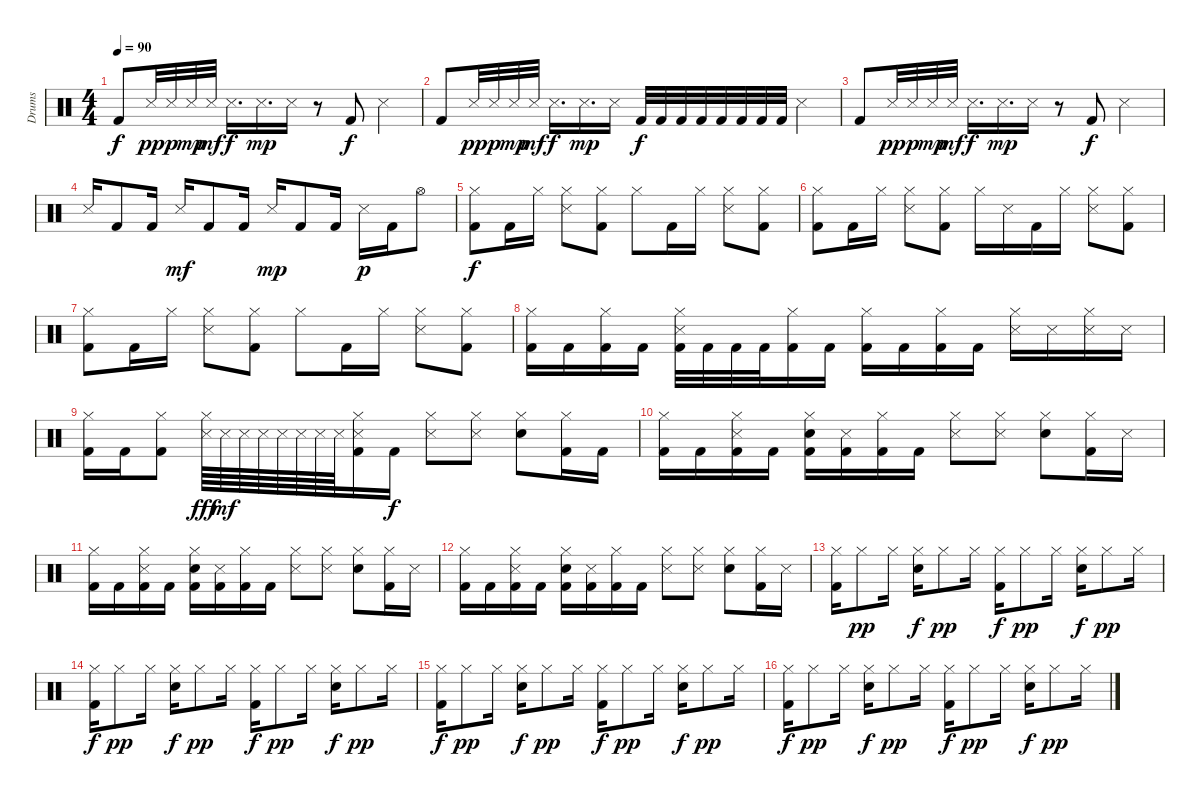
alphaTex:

\track ("Drums" "Drums") {instrument percussion}
\staff {score}
\articulation defaults
\ts (4 4)
\tempo 90
\clef neutral
\ks c "Kick (hit) 2".8{dy f} "Snare (side stick) 3".32{dy pp} "Snare (side stick) 3".32{dy p} "Snare (side stick) 3".32{dy mp} "Snare (side stick) 3".32{dy mf} "Snare (side stick) 3".16{d dy f} "Snare (side stick) 3".16{d dy mp} "Snare (side stick) 3".16
r.8 "Kick (hit) 2".8{dy f} "Snare (side stick) 3".4 |
"Kick (hit) 2".8 "Snare (side stick) 3".32{dy pp} "Snare (side stick) 3".32{dy p} "Snare (side stick) 3".32{dy mp} "Snare (side stick) 3".32{dy mf} "Snare (side stick) 3".16{d dy f} "Snare (side stick) 3".16{d dy mp} "Snare (side stick) 3".16 "Kick (hit) 2".32{dy f} "Kick (hit) 2".32 "Kick (hit) 2".32 "Kick (hit) 2".32 "Kick (hit) 2".32 "Kick (hit) 2".32 "Kick (hit) 2".32 "Kick (hit) 2".32 "Snare (side stick) 3".4 |
"Kick (hit) 2".8 "Snare (side stick) 3".32{dy pp} "Snare (side stick) 3".32{dy p} "Snare (side stick) 3".32{dy mp} "Snare (side stick) 3".32{dy mf} "Snare (side stick) 3".16{d dy f} "Snare (side stick) 3".16{d dy mp} "Snare (side stick) 3".16 r.8 "Kick (hit) 2".8{dy f} "Snare (side stick) 3".4 |
"Snare (side stick) 3".16 "Kick (hit) 2".8 "Kick (hit) 2".16 "Snare (side stick) 3".16{dy mf} "Kick (hit) 2".8 "Kick (hit) 2".16 "Snare (side stick) 3".16{dy mp} "Kick (hit) 2".8 "Kick (hit) 2".16 "Snare (side stick) 3".16{dy p} "Kick (hit) 2".16 "Hi-Hat (open)".8 |
("Hi-Hat (closed)" "Kick (hit) 2").8{dy f} "Kick (hit) 2".16 "Hi-Hat (closed)".16 ("Snare (side stick) 3" "Hi-Hat (closed)").8 ("Hi-Hat (closed)" "Kick (hit) 2").8 "Hi-Hat (closed)".8 "Kick (hit) 2".16 "Hi-Hat (closed)".16 ("Snare (side stick) 3" "Hi-Hat (closed)").8 ("Hi-Hat (closed)" "Kick (hit) 2").8 |
("Hi-Hat (closed)" "Kick (hit) 2").8 "Kick (hit) 2".16 "Hi-Hat (closed)".16 ("Snare (side stick) 3" "Hi-Hat (closed)").8 ("Hi-Hat (closed)" "Kick (hit) 2").8 "Hi-Hat (closed)".16 "Snare (side stick) 3".16 "Kick (hit) 2".16 "Hi-Hat (closed)".16 ("Snare (side stick) 3" "Hi-Hat (closed)").8 ("Hi-Hat (closed)" "Kick (hit) 2").8 |
("Hi-Hat (closed)" "Kick (hit) 2").8 "Kick (hit) 2".16 "Hi-Hat (closed)".16 ("Snare (side stick) 3" "Hi-Hat (closed)").8 ("Hi-Hat (closed)" "Kick (hit) 2").8 "Hi-Hat (closed)".8 "Kick (hit) 2".16 "Hi-Hat (closed)".16 ("Snare (side stick) 3" "Hi-Hat (closed)").8 ("Hi-Hat (closed)" "Kick (hit) 2").8 |
("Hi-Hat (closed)" "Kick (hit) 2").16 "Kick (hit) 2".16 ("Hi-Hat (closed)" "Kick (hit) 2").16 "Kick (hit) 2".16 ("Snare (side stick) 3" "Hi-Hat (closed)" "Kick (hit) 2").32 "Kick (hit) 2".32 "Kick (hit) 2".32 "Kick (hit) 2".32 ("Hi-Hat (closed)" "Kick (hit) 2").16 "Kick (hit) 2".16 ("Hi-Hat (closed)" "Kick (hit) 2").16 "Kick (hit) 2".16 ("Hi-Hat (closed)" "Kick (hit) 2").16 "Kick (hit) 2".16 ("Snare (side stick) 3" "Hi-Hat (closed)").16 "Snare (side stick) 3".16 ("Snare (side stick) 3" "Hi-Hat (closed)").16 "Snare (side stick) 3".16 |
("Hi-Hat (closed)" "Kick (hit) 2").16 "Kick (hit) 2".16 ("Hi-Hat (closed)" "Kick (hit) 2").8 ("Snare (side stick) 3" "Hi-Hat (closed)").64{dy fff} "Snare (side stick) 3".64{dy mf} "Snare (side stick) 3".64 "Snare (side stick) 3".64 "Snare (side stick) 3".64 "Snare (side stick) 3".64 "Snare (side stick) 3".64 "Snare (side stick) 3".64 ("Snare (side stick) 3" "Hi-Hat (closed)" "Kick (hit) 2").16 "Kick (hit) 2".16{dy f} ("Snare (side stick) 3" "Hi-Hat (closed)").8 ("Snare (side stick) 3" "Hi-Hat (closed)").8 ("Snare (hit) 2" "Hi-Hat (closed)").8 ("Hi-Hat (closed)" "Kick (hit) 2").16 "Kick (hit) 2".16 |
("Hi-Hat (closed)" "Kick (hit) 2").16 "Kick (hit) 2".16 ("Snare (side stick) 3" "Hi-Hat (closed)" "Kick (hit) 2").16 "Kick (hit) 2".16 ("Snare (hit) 2" "Hi-Hat (closed)" "Kick (hit) 2").16 ("Snare (side stick) 3" "Kick (hit) 2").16 ("Hi-Hat (closed)" "Kick (hit) 2").16 "Kick (hit) 2".16 ("Snare (side stick) 3" "Hi-Hat (closed)").8 ("Snare (side stick) 3" "Hi-Hat (closed)").8 ("Snare (hit) 2" "Hi-Hat (closed)").8 ("Hi-Hat (closed)" "Kick (hit) 2").16 "Snare (side stick) 3".16 |
("Hi-Hat (closed)" "Kick (hit) 2").16 "Kick (hit) 2".16 ("Snare (side stick) 3" "Hi-Hat (closed)" "Kick (hit) 2").16 "Kick (hit) 2".16 ("Snare (hit) 2" "Hi-Hat (closed)" "Kick (hit) 2").16 ("Snare (side stick) 3" "Kick (hit) 2").16 ("Hi-Hat (closed)" "Kick (hit) 2").16 "Kick (hit) 2".16 ("Snare (side stick) 3" "Hi-Hat (closed)").8 ("Snare (side stick) 3" "Hi-Hat (closed)").8 ("Snare (hit) 2" "Hi-Hat (closed)").8 ("Hi-Hat (closed)" "Kick (hit) 2").16 "Snare (side stick) 3".16 |
("Hi-Hat (closed)" "Kick (hit) 2").16 "Kick (hit) 2".16 ("Snare (side stick) 3" "Hi-Hat (closed)" "Kick (hit) 2").16 "Kick (hit) 2".16 ("Snare (hit) 2" "Hi-Hat (closed)" "Kick (hit) 2").16 ("Snare (side stick) 3" "Kick (hit) 2").16 ("Hi-Hat (closed)" "Kick (hit) 2").16 "Kick (hit) 2".16 ("Snare (side stick) 3" "Hi-Hat (closed)").8 ("Snare (side stick) 3" "Hi-Hat (closed)").8 ("Snare (hit) 2" "Hi-Hat (closed)").8 ("Hi-Hat (closed)" "Kick (hit) 2").16 "Snare (side stick) 3".16 |
("Hi-Hat (closed)" "Kick (hit) 2").16 "Hi-Hat (closed)".8{dy pp} "Hi-Hat (closed)".16 ("Snare (hit) 2" "Hi-Hat (closed)").16{dy f} "Hi-Hat (closed)".8{dy pp} "Hi-Hat (closed)".16 ("Hi-Hat (closed)" "Kick (hit) 2").16{dy f} "Hi-Hat (closed)".8{dy pp} "Hi-Hat (closed)".16 ("Snare (hit) 2" "Hi-Hat (closed)").16{dy f} "Hi-Hat (closed)".8{dy pp} "Hi-Hat (closed)".16 |
("Hi-Hat (closed)" "Kick (hit) 2").16{dy f} "Hi-Hat (closed)".8{dy pp} "Hi-Hat (closed)".16 ("Snare (hit) 2" "Hi-Hat (closed)").16{dy f} "Hi-Hat (closed)".8{dy pp} "Hi-Hat (closed)".16 ("Hi-Hat (closed)" "Kick (hit) 2").16{dy f} "Hi-Hat (closed)".8{dy pp} "Hi-Hat (closed)".16 ("Snare (hit) 2" "Hi-Hat (closed)").16{dy f} "Hi-Hat (closed)".8{dy pp} "Hi-Hat (closed)".16 |
("Hi-Hat (closed)" "Kick (hit) 2").16{dy f} "Hi-Hat (closed)".8{dy pp} "Hi-Hat (closed)".16 ("Snare (hit) 2" "Hi-Hat (closed)").16{dy f} "Hi-Hat (closed)".8{dy pp} "Hi-Hat (closed)".16 ("Hi-Hat (closed)" "Kick (hit) 2").16{dy f} "Hi-Hat (closed)".8{dy pp} "Hi-Hat (closed)".16 ("Snare (hit) 2" "Hi-Hat (closed)").16{dy f} "Hi-Hat (closed)".8{dy pp} "Hi-Hat (closed)".16 |
("Hi-Hat (closed)" "Kick (hit) 2").16{dy f} "Hi-Hat (closed)".8{dy pp} "Hi-Hat (closed)".16 ("Snare (hit) 2" "Hi-Hat (closed)").16{dy f} "Hi-Hat (closed)".8{dy pp} "Hi-Hat (closed)".16 ("Hi-Hat (closed)" "Kick (hit) 2").16{dy f} "Hi-Hat (closed)".8{dy pp} "Hi-Hat (closed)".16 ("Snare (hit) 2" "Hi-Hat (closed)").16{dy f} "Hi-Hat (closed)".8{dy pp} "Hi-Hat (closed)".16
